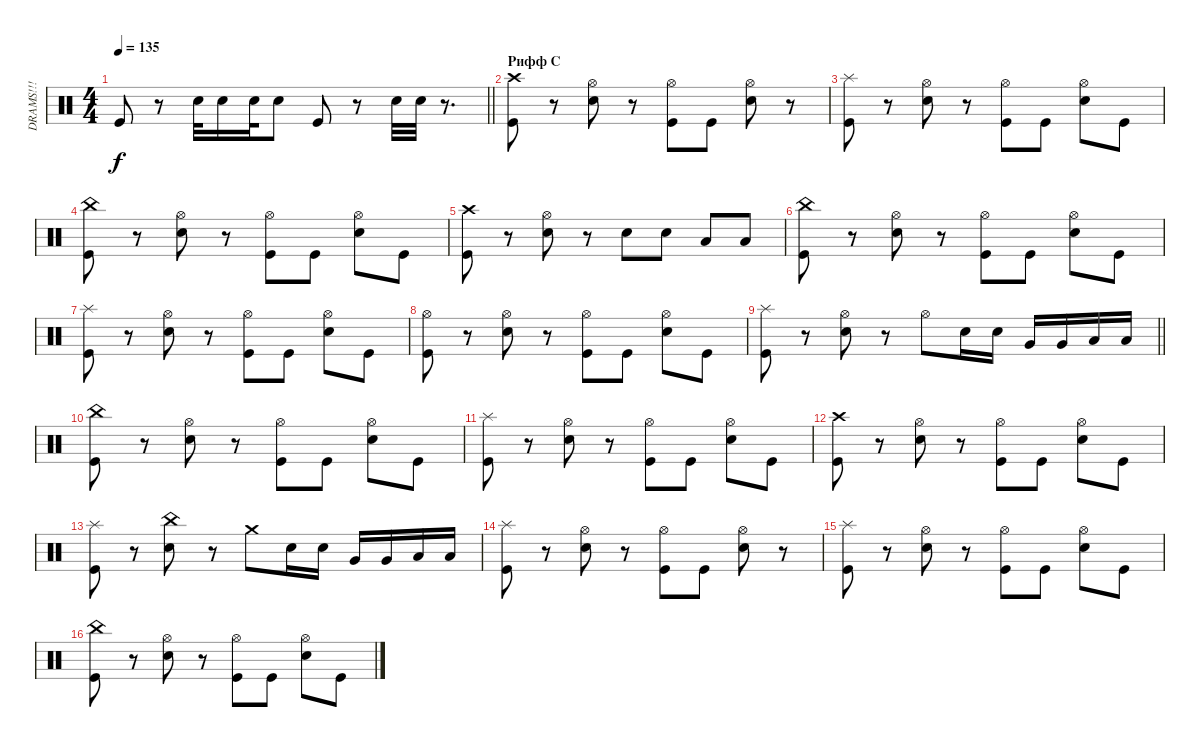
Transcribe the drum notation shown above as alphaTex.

\track ("DRAMS!!!" "DRAMS!!!") {instrument percussion}
\staff {score}
\articulation defaults
\ts (4 4)
\tempo 135
\clef neutral
\barLineRight lightlight
\ks c "Kick (hit)".8{dy f}
r.8 "Electric Snare (hit)".32 "Electric Snare (hit)".16 "Electric Snare (hit)".32 "Electric Snare (hit)".8 "Kick (hit)".8 r.8 "Electric Snare (hit)".32 "Electric Snare (hit)".32 r.8{d} |
\section ("" "Рифф С")
("Kick (hit)" "Crash high (hit)").8 r.8 ("Electric Snare (hit)" "Hi-Hat (open)").8 r.8 ("Kick (hit)" "Hi-Hat (open)").8 "Kick (hit)".8 ("Electric Snare (hit)" "Hi-Hat (open)").8 r.8 |
("Kick (hit)" "Splash (hit)").8 r.8 ("Electric Snare (hit)" "Hi-Hat (open)").8 r.8 ("Kick (hit)" "Hi-Hat (open)").8 "Kick (hit)".8 ("Electric Snare (hit)" "Hi-Hat (open)").8 "Kick (hit)".8 |
("Kick (hit)" "China (hit)").8 r.8 ("Electric Snare (hit)" "Hi-Hat (open)").8 r.8 ("Kick (hit)" "Hi-Hat (open)").8 "Kick (hit)".8 ("Electric Snare (hit)" "Hi-Hat (open)").8 "Kick (hit)".8 |
("Kick (hit)" "Crash high (hit)").8 r.8 ("Electric Snare (hit)" "Hi-Hat (open)").8 r.8 "Electric Snare (hit)".8 "Electric Snare (hit)".8 "Low Tom (hit)".8 "Low Tom (hit)".8 |
("Kick (hit)" "China (hit)").8 r.8 ("Electric Snare (hit)" "Hi-Hat (open)").8 r.8 ("Kick (hit)" "Hi-Hat (open)").8 "Kick (hit)".8 ("Electric Snare (hit)" "Hi-Hat (open)").8 "Kick (hit)".8 |
("Kick (hit)" "Splash (hit)").8 r.8 ("Electric Snare (hit)" "Hi-Hat (open)").8 r.8 ("Kick (hit)" "Hi-Hat (open)").8 "Kick (hit)".8 ("Electric Snare (hit)" "Hi-Hat (open)").8 "Kick (hit)".8 |
("Kick (hit)" "Hi-Hat (open)").8 r.8 ("Electric Snare (hit)" "Hi-Hat (open)").8 r.8 ("Kick (hit)" "Hi-Hat (open)").8 "Kick (hit)".8 ("Electric Snare (hit)" "Hi-Hat (open)").8 "Kick (hit)".8 |
\barLineRight lightlight
("Kick (hit)" "Splash (hit)").8 r.8 ("Electric Snare (hit)" "Hi-Hat (open)").8 r.8 "Hi-Hat (open)".8 "Electric Snare (hit)".16 "Electric Snare (hit)".16 "Very Low Tom (hit)".16 "Very Low Tom (hit)".16 "Low Tom (hit)".16 "Low Tom (hit)".16 |
("Kick (hit)" "China (hit)").8 r.8 ("Electric Snare (hit)" "Hi-Hat (open)").8 r.8 ("Kick (hit)" "Hi-Hat (open)").8 "Kick (hit)".8 ("Electric Snare (hit)" "Hi-Hat (open)").8 "Kick (hit)".8 |
("Kick (hit)" "Splash (hit)").8 r.8 ("Electric Snare (hit)" "Hi-Hat (open)").8 r.8 ("Kick (hit)" "Hi-Hat (open)").8 "Kick (hit)".8 ("Electric Snare (hit)" "Hi-Hat (open)").8 "Kick (hit)".8 |
("Kick (hit)" "Crash high (hit)").8 r.8 ("Electric Snare (hit)" "Hi-Hat (open)").8 r.8 ("Kick (hit)" "Hi-Hat (open)").8 "Kick (hit)".8 ("Electric Snare (hit)" "Hi-Hat (open)").8 "Kick (hit)".8 |
("Kick (hit)" "Splash (hit)").8 r.8 ("Electric Snare (hit)" "China (hit)").8 r.8 "Crash medium (hit)".8 "Electric Snare (hit)".16 "Electric Snare (hit)".16 "Very Low Tom (hit)".16 "Very Low Tom (hit)".16 "Low Tom (hit)".16 "Low Tom (hit)".16 |
("Kick (hit)" "Splash (hit)").8 r.8 ("Electric Snare (hit)" "Hi-Hat (open)").8 r.8 ("Kick (hit)" "Hi-Hat (open)").8 "Kick (hit)".8 ("Electric Snare (hit)" "Hi-Hat (open)").8 r.8 |
("Kick (hit)" "Splash (hit)").8 r.8 ("Electric Snare (hit)" "Hi-Hat (open)").8 r.8 ("Kick (hit)" "Hi-Hat (open)").8 "Kick (hit)".8 ("Electric Snare (hit)" "Hi-Hat (open)").8 "Kick (hit)".8 |
("Kick (hit)" "China (hit)").8 r.8 ("Electric Snare (hit)" "Hi-Hat (open)").8 r.8 ("Kick (hit)" "Hi-Hat (open)").8 "Kick (hit)".8 ("Electric Snare (hit)" "Hi-Hat (open)").8 "Kick (hit)".8
